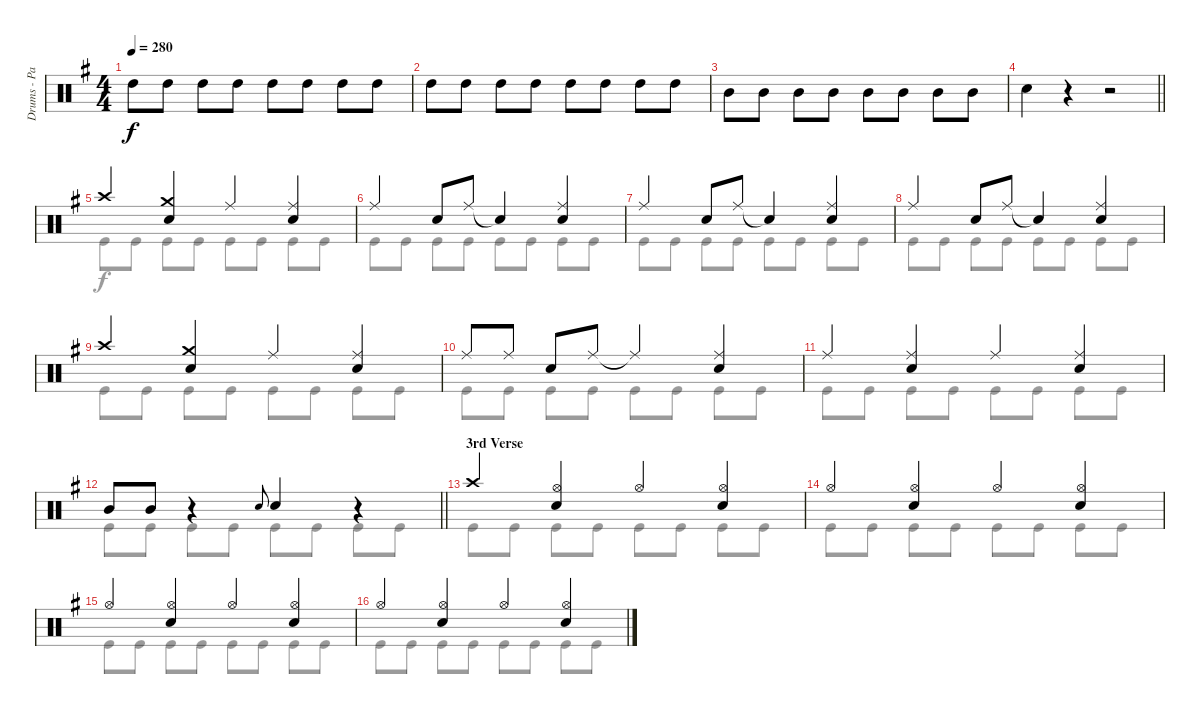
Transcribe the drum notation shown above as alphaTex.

\track ("Drums - Patrick Johansson" "Drums - Pa") {instrument percussion}
\staff {score}
\articulation defaults
\voice
\ts (4 4)
\tempo 280
\clef neutral
\ks eminor "High Tom (hit)".8{dy f} "High Tom (hit)".8 "High Tom (hit)".8 "High Tom (hit)".8 "High Tom (hit)".8 "High Tom (hit)".8 "High Tom (hit)".8 "High Tom (hit)".8
|
"High Tom (hit)".8 "High Tom (hit)".8 "High Tom (hit)".8 "High Tom (hit)".8 "High Tom (hit)".8 "High Tom (hit)".8 "High Tom (hit)".8 "High Tom (hit)".8 |
"Mid Tom (hit)".8 "Mid Tom (hit)".8 "Mid Tom (hit)".8 "Mid Tom (hit)".8 "Mid Tom (hit)".8 "Mid Tom (hit)".8 "Mid Tom (hit)".8 "Mid Tom (hit)".8 |
\barLineRight lightlight "Snare (hit) 2".4
r.4 r.2 |
"Crash high (hit)".4 ("Crash medium (hit)" "Snare (hit) 2").4 "Ride (middle)".4 ("Ride (middle)" "Snare (hit) 2").4 |
"Ride (middle)".4 "Snare (hit) 2".8 "Ride (middle)".8 "Snare (hit)"{t}.4 ("Ride (middle)" "Snare (hit) 2").4 |
"Ride (middle)".4 "Snare (hit) 2".8 "Ride (middle)".8 "Snare (hit)"{t}.4 ("Ride (middle)" "Snare (hit) 2").4 |
"Ride (middle)".4 "Snare (hit) 2".8 "Ride (middle)".8 "Snare (hit)"{t}.4 ("Ride (middle)" "Snare (hit) 2").4 |
"Crash high (hit)".4 ("Crash medium (hit)" "Snare (hit) 2").4 "Ride (middle)".4 ("Ride (middle)" "Snare (hit) 2").4 |
"Ride (middle)".8 "Ride (middle)".8 "Snare (hit) 2".8 "Ride (middle)".8 "Ride (middle)"{t}.4 ("Ride (middle)" "Snare (hit) 2").4 |
"Ride (middle)".4 ("Ride (middle)" "Snare (hit) 2").4 "Ride (middle)".4 ("Ride (middle)" "Snare (hit) 2").4 |
\barLineRight lightlight "Mid Tom (hit)".8 "Mid Tom (hit)".8
r.4 "Snare (hit) 2"{h}.8{gr onbeat} "Snare (hit) 2".4 r.4 |
\section ("" "3rd Verse")
"Crash high (hit)".4 ("Hi-Hat (open)" "Snare (hit) 2").4 "Hi-Hat (open)".4 ("Hi-Hat (open)" "Snare (hit) 2").4 |
"Hi-Hat (open)".4 ("Hi-Hat (open)" "Snare (hit) 2").4 "Hi-Hat (open)".4 ("Hi-Hat (open)" "Snare (hit) 2").4 |
"Hi-Hat (open)".4 ("Hi-Hat (open)" "Snare (hit) 2").4 "Hi-Hat (open)".4 ("Hi-Hat (open)" "Snare (hit) 2").4 |
"Hi-Hat (open)".4 ("Hi-Hat (open)" "Snare (hit) 2").4 "Hi-Hat (open)".4 ("Hi-Hat (open)" "Snare (hit) 2").4
\voice
\clef neutral
\ottava regular
\simile none
\ks eminor
|
|
|
\barLineRight lightlight
|
"Kick (hit)".8 "Kick (hit)".8 "Kick (hit)".8 "Kick (hit)".8 "Kick (hit)".8 "Kick (hit)".8 "Kick (hit)".8 "Kick (hit)".8 |
"Kick (hit)".8 "Kick (hit)".8 "Kick (hit)".8 "Kick (hit)".8 "Kick (hit)".8 "Kick (hit)".8 "Kick (hit)".8 "Kick (hit)".8 |
"Kick (hit)".8 "Kick (hit)".8 "Kick (hit)".8 "Kick (hit)".8 "Kick (hit)".8 "Kick (hit)".8 "Kick (hit)".8 "Kick (hit)".8 |
"Kick (hit)".8 "Kick (hit)".8 "Kick (hit)".8 "Kick (hit)".8 "Kick (hit)".8 "Kick (hit)".8 "Kick (hit)".8 "Kick (hit)".8 |
"Kick (hit)".8 "Kick (hit)".8 "Kick (hit)".8 "Kick (hit)".8 "Kick (hit)".8 "Kick (hit)".8 "Kick (hit)".8 "Kick (hit)".8 |
"Kick (hit)".8 "Kick (hit)".8 "Kick (hit)".8 "Kick (hit)".8 "Kick (hit)".8 "Kick (hit)".8 "Kick (hit)".8 "Kick (hit)".8 |
"Kick (hit)".8 "Kick (hit)".8 "Kick (hit)".8 "Kick (hit)".8 "Kick (hit)".8 "Kick (hit)".8 "Kick (hit)".8 "Kick (hit)".8 |
\barLineRight lightlight "Kick (hit)".8 "Kick (hit)".8 "Kick (hit)".8 "Kick (hit)".8 "Kick (hit)".8 "Kick (hit)".8 "Kick (hit)".8 "Kick (hit)".8
|
"Kick (hit)".8 "Kick (hit)".8 "Kick (hit)".8 "Kick (hit)".8 "Kick (hit)".8 "Kick (hit)".8 "Kick (hit)".8 "Kick (hit)".8 |
"Kick (hit)".8 "Kick (hit)".8 "Kick (hit)".8 "Kick (hit)".8 "Kick (hit)".8 "Kick (hit)".8 "Kick (hit)".8 "Kick (hit)".8 |
"Kick (hit)".8 "Kick (hit)".8 "Kick (hit)".8 "Kick (hit)".8 "Kick (hit)".8 "Kick (hit)".8 "Kick (hit)".8 "Kick (hit)".8 |
"Kick (hit)".8 "Kick (hit)".8 "Kick (hit)".8 "Kick (hit)".8 "Kick (hit)".8 "Kick (hit)".8 "Kick (hit)".8 "Kick (hit)".8
